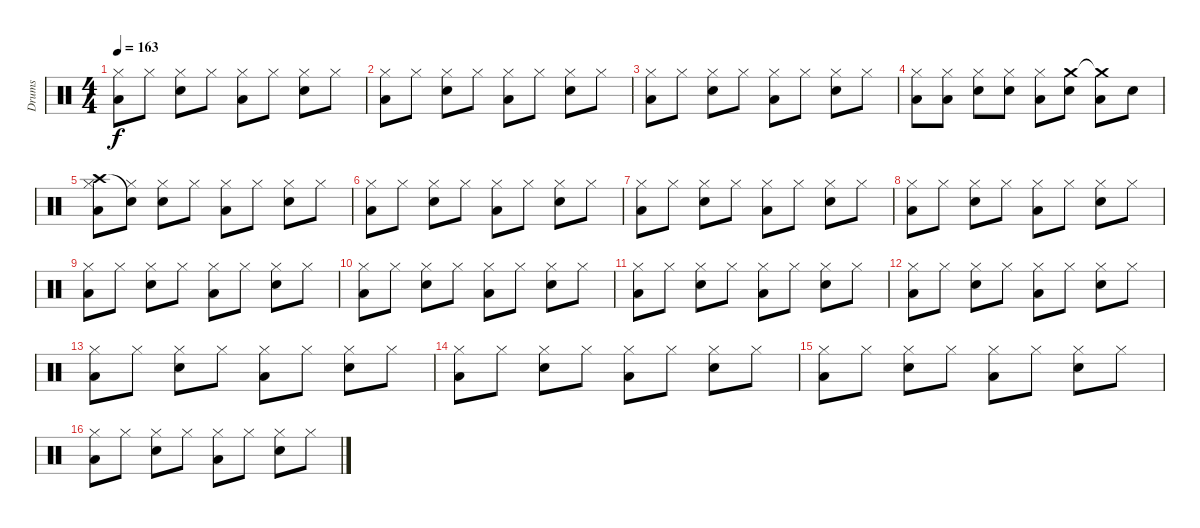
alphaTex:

\track ("Drums" "Drums") {instrument percussion}
\staff {score}
\articulation defaults
\ts (4 4)
\tempo 163
\clef neutral
\ks c
("Low Tom (hit)" "Hi-Hat (closed)").8{dy f} "Hi-Hat (closed)".8 ("Snare (hit) 2" "Hi-Hat (closed)").8 "Hi-Hat (closed)".8 ("Low Tom (hit)" "Hi-Hat (closed)").8 "Hi-Hat (closed)".8 ("Snare (hit) 2" "Hi-Hat (closed)").8 "Hi-Hat (closed)".8 |
("Low Tom (hit)" "Hi-Hat (closed)").8 "Hi-Hat (closed)".8 ("Snare (hit) 2" "Hi-Hat (closed)").8 "Hi-Hat (closed)".8 ("Low Tom (hit)" "Hi-Hat (closed)").8 "Hi-Hat (closed)".8 ("Snare (hit) 2" "Hi-Hat (closed)").8 "Hi-Hat (closed)".8 |
("Low Tom (hit)" "Hi-Hat (closed)").8 "Hi-Hat (closed)".8 ("Snare (hit) 2" "Hi-Hat (closed)").8 "Hi-Hat (closed)".8 ("Low Tom (hit)" "Hi-Hat (closed)").8 "Hi-Hat (closed)".8 ("Snare (hit) 2" "Hi-Hat (closed)").8 "Hi-Hat (closed)".8 |
("Low Tom (hit)" "Hi-Hat (closed)").8 ("Low Tom (hit)" "Hi-Hat (closed)").8 ("Snare (hit) 2" "Hi-Hat (closed)").8 ("Snare (hit) 2" "Hi-Hat (closed)").8 ("Low Tom (hit)" "Hi-Hat (closed)").8 ("Crash medium (hit)" "Snare (hit) 2").8 ("Crash medium (hit)"{t} "Low Tom (hit)").8 "Snare (hit) 2".8 |
("Crash high (hit)" "Low Tom (hit)" "Hi-Hat (closed)").8 ("Snare (hit)"{t} "Hi-Hat (closed)").8 ("Snare (hit) 2" "Hi-Hat (closed)").8 "Hi-Hat (closed)".8 ("Low Tom (hit)" "Hi-Hat (closed)").8 "Hi-Hat (closed)".8 ("Snare (hit) 2" "Hi-Hat (closed)").8 "Hi-Hat (closed)".8 |
("Low Tom (hit)" "Hi-Hat (closed)").8 "Hi-Hat (closed)".8 ("Snare (hit) 2" "Hi-Hat (closed)").8 "Hi-Hat (closed)".8 ("Low Tom (hit)" "Hi-Hat (closed)").8 "Hi-Hat (closed)".8 ("Snare (hit) 2" "Hi-Hat (closed)").8 "Hi-Hat (closed)".8 |
("Low Tom (hit)" "Hi-Hat (closed)").8 "Hi-Hat (closed)".8 ("Snare (hit) 2" "Hi-Hat (closed)").8 "Hi-Hat (closed)".8 ("Low Tom (hit)" "Hi-Hat (closed)").8 "Hi-Hat (closed)".8 ("Snare (hit) 2" "Hi-Hat (closed)").8 "Hi-Hat (closed)".8 |
("Low Tom (hit)" "Hi-Hat (closed)").8 "Hi-Hat (closed)".8 ("Snare (hit) 2" "Hi-Hat (closed)").8 "Hi-Hat (closed)".8 ("Low Tom (hit)" "Hi-Hat (closed)").8 "Hi-Hat (closed)".8 ("Snare (hit) 2" "Hi-Hat (closed)").8 "Hi-Hat (closed)".8 |
("Low Tom (hit)" "Hi-Hat (closed)").8 "Hi-Hat (closed)".8 ("Snare (hit) 2" "Hi-Hat (closed)").8 "Hi-Hat (closed)".8 ("Low Tom (hit)" "Hi-Hat (closed)").8 "Hi-Hat (closed)".8 ("Snare (hit) 2" "Hi-Hat (closed)").8 "Hi-Hat (closed)".8 |
("Low Tom (hit)" "Hi-Hat (closed)").8 "Hi-Hat (closed)".8 ("Snare (hit) 2" "Hi-Hat (closed)").8 "Hi-Hat (closed)".8 ("Low Tom (hit)" "Hi-Hat (closed)").8 "Hi-Hat (closed)".8 ("Snare (hit) 2" "Hi-Hat (closed)").8 "Hi-Hat (closed)".8 |
("Low Tom (hit)" "Hi-Hat (closed)").8 "Hi-Hat (closed)".8 ("Snare (hit) 2" "Hi-Hat (closed)").8 "Hi-Hat (closed)".8 ("Low Tom (hit)" "Hi-Hat (closed)").8 "Hi-Hat (closed)".8 ("Snare (hit) 2" "Hi-Hat (closed)").8 "Hi-Hat (closed)".8 |
("Low Tom (hit)" "Hi-Hat (closed)").8 "Hi-Hat (closed)".8 ("Snare (hit) 2" "Hi-Hat (closed)").8 "Hi-Hat (closed)".8 ("Low Tom (hit)" "Hi-Hat (closed)").8 "Hi-Hat (closed)".8 ("Snare (hit) 2" "Hi-Hat (closed)").8 "Hi-Hat (closed)".8 |
("Low Tom (hit)" "Hi-Hat (closed)").8 "Hi-Hat (closed)".8 ("Snare (hit) 2" "Hi-Hat (closed)").8 "Hi-Hat (closed)".8 ("Low Tom (hit)" "Hi-Hat (closed)").8 "Hi-Hat (closed)".8 ("Snare (hit) 2" "Hi-Hat (closed)").8 "Hi-Hat (closed)".8 |
("Low Tom (hit)" "Hi-Hat (closed)").8 "Hi-Hat (closed)".8 ("Snare (hit) 2" "Hi-Hat (closed)").8 "Hi-Hat (closed)".8 ("Low Tom (hit)" "Hi-Hat (closed)").8 "Hi-Hat (closed)".8 ("Snare (hit) 2" "Hi-Hat (closed)").8 "Hi-Hat (closed)".8 |
("Low Tom (hit)" "Hi-Hat (closed)").8 "Hi-Hat (closed)".8 ("Snare (hit) 2" "Hi-Hat (closed)").8 "Hi-Hat (closed)".8 ("Low Tom (hit)" "Hi-Hat (closed)").8 "Hi-Hat (closed)".8 ("Snare (hit) 2" "Hi-Hat (closed)").8 "Hi-Hat (closed)".8 |
("Low Tom (hit)" "Hi-Hat (closed)").8 "Hi-Hat (closed)".8 ("Snare (hit) 2" "Hi-Hat (closed)").8 "Hi-Hat (closed)".8 ("Low Tom (hit)" "Hi-Hat (closed)").8 "Hi-Hat (closed)".8 ("Snare (hit) 2" "Hi-Hat (closed)").8 "Hi-Hat (closed)".8
